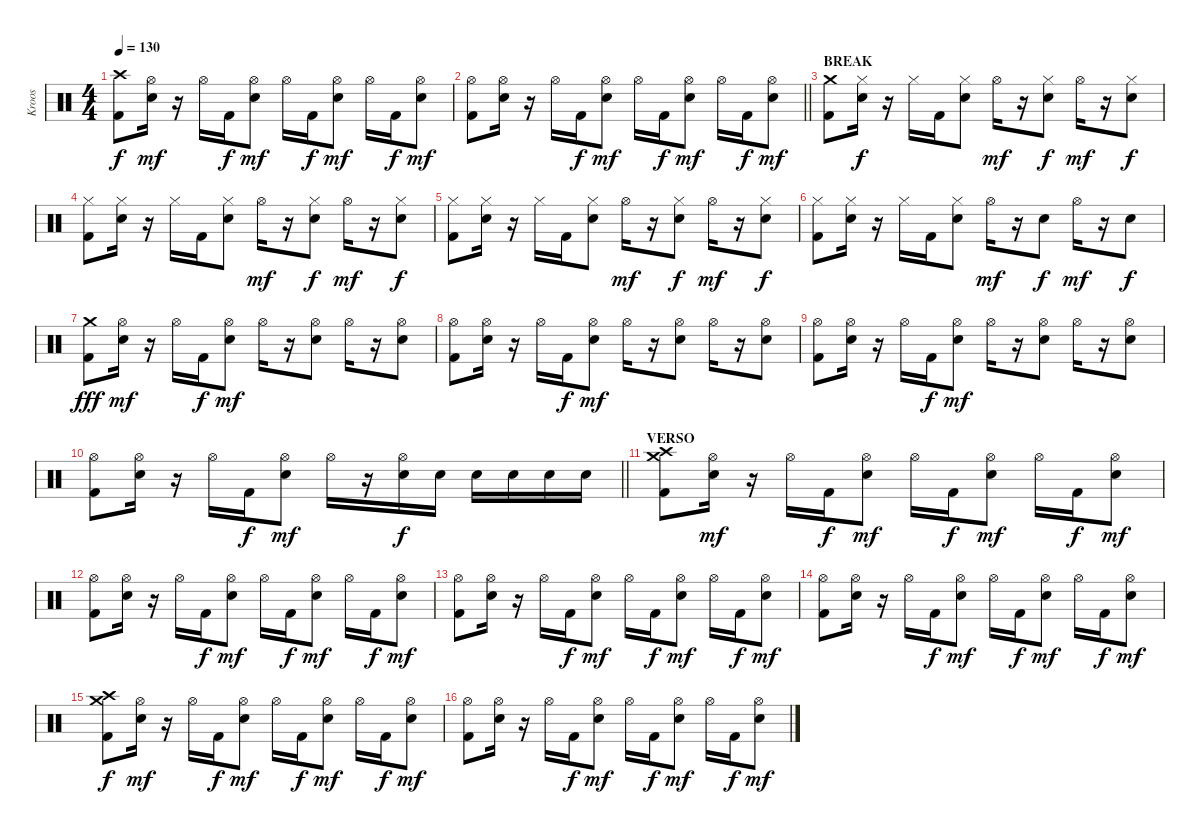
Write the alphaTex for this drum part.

\track ("Kroos" "Kroos") {instrument percussion}
\staff {score}
\articulation defaults
\ts (4 4)
\tempo 130
\clef neutral
\ks c
("Crash high (hit)" "Kick (hit) 2").8{dy f} ("Hi-Hat (open)" "Electric Snare (hit)").16{dy mf} r.16 "Hi-Hat (open)".16 "Kick (hit) 2".16{dy f} ("Hi-Hat (open)" "Electric Snare (hit)").8{dy mf} "Hi-Hat (open)".16 "Kick (hit) 2".16{dy f} ("Hi-Hat (open)" "Electric Snare (hit)").8{dy mf} "Hi-Hat (open)".16 "Kick (hit) 2".16{dy f} ("Hi-Hat (open)" "Electric Snare (hit)").8{dy mf} |
\barLineRight lightlight
("Hi-Hat (open)" "Kick (hit) 2").8 ("Hi-Hat (open)" "Electric Snare (hit)").16 r.16 "Hi-Hat (open)".16 "Kick (hit) 2".16{dy f} ("Hi-Hat (open)" "Electric Snare (hit)").8{dy mf} "Hi-Hat (open)".16 "Kick (hit) 2".16{dy f} ("Hi-Hat (open)" "Electric Snare (hit)").8{dy mf} "Hi-Hat (open)".16 "Kick (hit) 2".16{dy f} ("Hi-Hat (open)" "Electric Snare (hit)").8{dy mf} |
\section ("" "BREAK")
("Crash medium (hit)" "Kick (hit) 2").8 ("Hi-Hat (closed)" "Electric Snare (hit)").16{dy f} r.16 "Hi-Hat (closed)".16 "Kick (hit) 2".16 ("Hi-Hat (closed)" "Electric Snare (hit)").8 "Hi-Hat (open)".16{dy mf} r.16 ("Hi-Hat (closed)" "Electric Snare (hit)").8{dy f} "Hi-Hat (open)".16{dy mf} r.16 ("Hi-Hat (closed)" "Electric Snare (hit)").8{dy f} |
("Hi-Hat (closed)" "Kick (hit) 2").8 ("Hi-Hat (closed)" "Electric Snare (hit)").16 r.16 "Hi-Hat (closed)".16 "Kick (hit) 2".16 ("Hi-Hat (closed)" "Electric Snare (hit)").8 "Hi-Hat (open)".16{dy mf} r.16 ("Hi-Hat (closed)" "Electric Snare (hit)").8{dy f} "Hi-Hat (open)".16{dy mf} r.16 ("Hi-Hat (closed)" "Electric Snare (hit)").8{dy f} |
("Hi-Hat (closed)" "Kick (hit) 2").8 ("Hi-Hat (closed)" "Electric Snare (hit)").16 r.16 "Hi-Hat (closed)".16 "Kick (hit) 2".16 ("Hi-Hat (closed)" "Electric Snare (hit)").8 "Hi-Hat (open)".16{dy mf} r.16 ("Hi-Hat (closed)" "Electric Snare (hit)").8{dy f} "Hi-Hat (open)".16{dy mf} r.16 ("Hi-Hat (closed)" "Electric Snare (hit)").8{dy f} |
("Hi-Hat (closed)" "Kick (hit) 2").8 ("Hi-Hat (closed)" "Electric Snare (hit)").16 r.16 "Hi-Hat (closed)".16 "Kick (hit) 2".16 ("Hi-Hat (closed)" "Electric Snare (hit)").8 "Hi-Hat (open)".16{dy mf} r.16 "Electric Snare (hit)".8{dy f} "Hi-Hat (open)".16{dy mf} r.16 "Electric Snare (hit)".8{dy f} |
("Crash medium (hit)" "Kick (hit) 2").8{dy fff} ("Hi-Hat (open)" "Electric Snare (hit)").16{dy mf} r.16 "Hi-Hat (open)".16 "Kick (hit) 2".16{dy f} ("Hi-Hat (open)" "Electric Snare (hit)").8{dy mf} "Hi-Hat (open)".16 r.16 ("Hi-Hat (open)" "Electric Snare (hit)").8 "Hi-Hat (open)".16 r.16 ("Hi-Hat (open)" "Electric Snare (hit)").8 |
("Hi-Hat (open)" "Kick (hit) 2").8 ("Hi-Hat (open)" "Electric Snare (hit)").16 r.16 "Hi-Hat (open)".16 "Kick (hit) 2".16{dy f} ("Hi-Hat (open)" "Electric Snare (hit)").8{dy mf} "Hi-Hat (open)".16 r.16 ("Hi-Hat (open)" "Electric Snare (hit)").8 "Hi-Hat (open)".16 r.16 ("Hi-Hat (open)" "Electric Snare (hit)").8 |
("Hi-Hat (open)" "Kick (hit) 2").8 ("Hi-Hat (open)" "Electric Snare (hit)").16 r.16 "Hi-Hat (open)".16 "Kick (hit) 2".16{dy f} ("Hi-Hat (open)" "Electric Snare (hit)").8{dy mf} "Hi-Hat (open)".16 r.16 ("Hi-Hat (open)" "Electric Snare (hit)").8 "Hi-Hat (open)".16 r.16 ("Hi-Hat (open)" "Electric Snare (hit)").8 |
\barLineRight lightlight
("Hi-Hat (open)" "Kick (hit) 2").8 ("Hi-Hat (open)" "Electric Snare (hit)").16 r.16 "Hi-Hat (open)".16 "Kick (hit) 2".16{dy f} ("Hi-Hat (open)" "Electric Snare (hit)").8{dy mf} "Hi-Hat (open)".16 r.16 ("Hi-Hat (open)" "Electric Snare (hit)").16{dy f} "Electric Snare (hit)".16 "Electric Snare (hit)".16 "Electric Snare (hit)".16 "Electric Snare (hit)".16 "Electric Snare (hit)".16 |
\section ("" "VERSO")
("Crash high (hit)" "Crash medium (hit)" "Kick (hit) 2").8 ("Hi-Hat (open)" "Electric Snare (hit)").16{dy mf} r.16 "Hi-Hat (open)".16 "Kick (hit) 2".16{dy f} ("Hi-Hat (open)" "Electric Snare (hit)").8{dy mf} "Hi-Hat (open)".16 "Kick (hit) 2".16{dy f} ("Hi-Hat (open)" "Electric Snare (hit)").8{dy mf} "Hi-Hat (open)".16 "Kick (hit) 2".16{dy f} ("Hi-Hat (open)" "Electric Snare (hit)").8{dy mf} |
("Hi-Hat (open)" "Kick (hit) 2").8 ("Hi-Hat (open)" "Electric Snare (hit)").16 r.16 "Hi-Hat (open)".16 "Kick (hit) 2".16{dy f} ("Hi-Hat (open)" "Electric Snare (hit)").8{dy mf} "Hi-Hat (open)".16 "Kick (hit) 2".16{dy f} ("Hi-Hat (open)" "Electric Snare (hit)").8{dy mf} "Hi-Hat (open)".16 "Kick (hit) 2".16{dy f} ("Hi-Hat (open)" "Electric Snare (hit)").8{dy mf} |
("Hi-Hat (open)" "Kick (hit) 2").8 ("Hi-Hat (open)" "Electric Snare (hit)").16 r.16 "Hi-Hat (open)".16 "Kick (hit) 2".16{dy f} ("Hi-Hat (open)" "Electric Snare (hit)").8{dy mf} "Hi-Hat (open)".16 "Kick (hit) 2".16{dy f} ("Hi-Hat (open)" "Electric Snare (hit)").8{dy mf} "Hi-Hat (open)".16 "Kick (hit) 2".16{dy f} ("Hi-Hat (open)" "Electric Snare (hit)").8{dy mf} |
("Hi-Hat (open)" "Kick (hit) 2").8 ("Hi-Hat (open)" "Electric Snare (hit)").16 r.16 "Hi-Hat (open)".16 "Kick (hit) 2".16{dy f} ("Hi-Hat (open)" "Electric Snare (hit)").8{dy mf} "Hi-Hat (open)".16 "Kick (hit) 2".16{dy f} ("Hi-Hat (open)" "Electric Snare (hit)").8{dy mf} "Hi-Hat (open)".16 "Kick (hit) 2".16{dy f} ("Hi-Hat (open)" "Electric Snare (hit)").8{dy mf} |
("Crash high (hit)" "Crash medium (hit)" "Kick (hit) 2").8{dy f} ("Hi-Hat (open)" "Electric Snare (hit)").16{dy mf} r.16 "Hi-Hat (open)".16 "Kick (hit) 2".16{dy f} ("Hi-Hat (open)" "Electric Snare (hit)").8{dy mf} "Hi-Hat (open)".16 "Kick (hit) 2".16{dy f} ("Hi-Hat (open)" "Electric Snare (hit)").8{dy mf} "Hi-Hat (open)".16 "Kick (hit) 2".16{dy f} ("Hi-Hat (open)" "Electric Snare (hit)").8{dy mf} |
("Hi-Hat (open)" "Kick (hit) 2").8 ("Hi-Hat (open)" "Electric Snare (hit)").16 r.16 "Hi-Hat (open)".16 "Kick (hit) 2".16{dy f} ("Hi-Hat (open)" "Electric Snare (hit)").8{dy mf} "Hi-Hat (open)".16 "Kick (hit) 2".16{dy f} ("Hi-Hat (open)" "Electric Snare (hit)").8{dy mf} "Hi-Hat (open)".16 "Kick (hit) 2".16{dy f} ("Hi-Hat (open)" "Electric Snare (hit)").8{dy mf}
